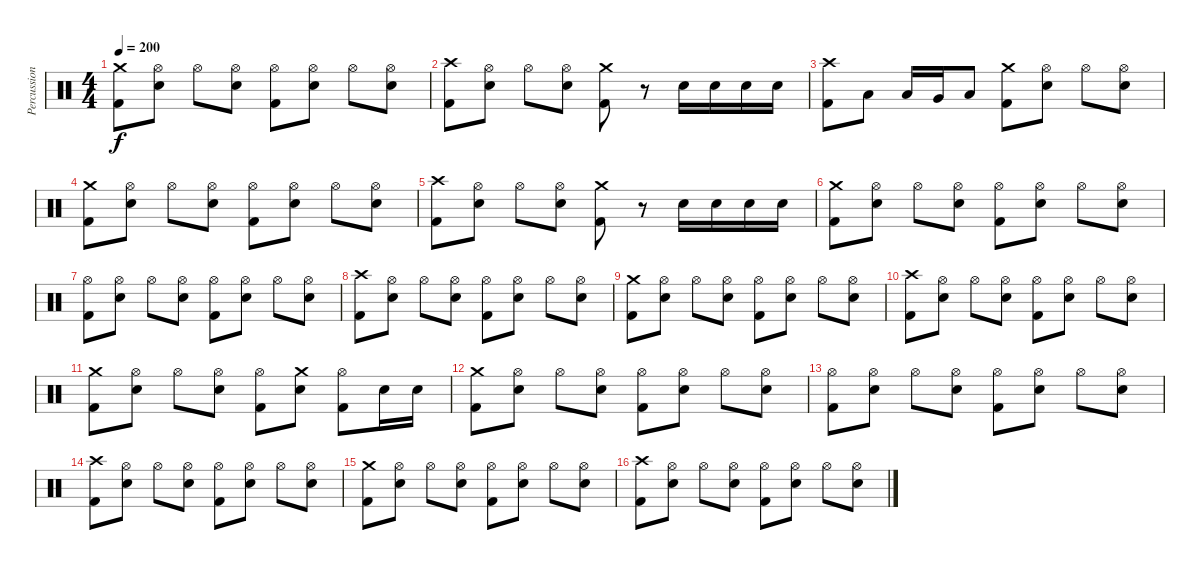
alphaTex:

\track ("Percussion" "Percussion") {instrument percussion}
\staff {score}
\articulation defaults
\ts (4 4)
\tempo 200
\clef neutral
\ks c
("Crash medium (hit)" "Kick (hit) 2").8{dy f} ("Hi-Hat (open)" "Electric Snare (hit)").8 "Hi-Hat (open)".8 ("Hi-Hat (open)" "Electric Snare (hit)").8 ("Hi-Hat (open)" "Kick (hit) 2").8 ("Hi-Hat (open)" "Electric Snare (hit)").8 "Hi-Hat (open)".8 ("Hi-Hat (open)" "Electric Snare (hit)").8 |
("Crash high (hit)" "Kick (hit) 2").8 ("Hi-Hat (open)" "Electric Snare (hit)").8 "Hi-Hat (open)".8 ("Hi-Hat (open)" "Electric Snare (hit)").8 ("Crash medium (hit)" "Kick (hit) 2").8 r.8 "Electric Snare (hit)".16 "Electric Snare (hit)".16 "Electric Snare (hit)".16 "Electric Snare (hit)".16 |
("Crash high (hit)" "Kick (hit) 2").8 "Low Tom (hit)".8 "Low Tom (hit)".16 "Very Low Tom (hit)".16 "Low Floor Tom (hit)".8 ("Crash medium (hit)" "Kick (hit) 2").8 ("Hi-Hat (open)" "Electric Snare (hit)").8 "Hi-Hat (open)".8 ("Hi-Hat (open)" "Electric Snare (hit)").8 |
("Crash medium (hit)" "Kick (hit) 2").8 ("Hi-Hat (open)" "Electric Snare (hit)").8 "Hi-Hat (open)".8 ("Hi-Hat (open)" "Electric Snare (hit)").8 ("Hi-Hat (open)" "Kick (hit) 2").8 ("Hi-Hat (open)" "Electric Snare (hit)").8 "Hi-Hat (open)".8 ("Hi-Hat (open)" "Electric Snare (hit)").8 |
("Crash high (hit)" "Kick (hit) 2").8 ("Hi-Hat (open)" "Electric Snare (hit)").8 "Hi-Hat (open)".8 ("Hi-Hat (open)" "Electric Snare (hit)").8 ("Crash medium (hit)" "Kick (hit) 2").8 r.8 "Electric Snare (hit)".16 "Electric Snare (hit)".16 "Electric Snare (hit)".16 "Electric Snare (hit)".16 |
("Crash medium (hit)" "Kick (hit) 2").8 ("Hi-Hat (open)" "Electric Snare (hit)").8 "Hi-Hat (open)".8 ("Hi-Hat (open)" "Electric Snare (hit)").8 ("Hi-Hat (open)" "Kick (hit) 2").8 ("Hi-Hat (open)" "Electric Snare (hit)").8 "Hi-Hat (open)".8 ("Hi-Hat (open)" "Electric Snare (hit)").8 |
("Hi-Hat (open)" "Kick (hit) 2").8 ("Hi-Hat (open)" "Electric Snare (hit)").8 "Hi-Hat (open)".8 ("Hi-Hat (open)" "Electric Snare (hit)").8 ("Hi-Hat (open)" "Kick (hit) 2").8 ("Hi-Hat (open)" "Electric Snare (hit)").8 "Hi-Hat (open)".8 ("Hi-Hat (open)" "Electric Snare (hit)").8 |
("Crash high (hit)" "Kick (hit) 2").8 ("Hi-Hat (open)" "Electric Snare (hit)").8 "Hi-Hat (open)".8 ("Hi-Hat (open)" "Electric Snare (hit)").8 ("Hi-Hat (open)" "Kick (hit) 2").8 ("Hi-Hat (open)" "Electric Snare (hit)").8 "Hi-Hat (open)".8 ("Hi-Hat (open)" "Electric Snare (hit)").8 |
("Crash medium (hit)" "Kick (hit) 2").8 ("Hi-Hat (open)" "Electric Snare (hit)").8 "Hi-Hat (open)".8 ("Hi-Hat (open)" "Electric Snare (hit)").8 ("Hi-Hat (open)" "Kick (hit) 2").8 ("Hi-Hat (open)" "Electric Snare (hit)").8 "Hi-Hat (open)".8 ("Hi-Hat (open)" "Electric Snare (hit)").8 |
("Crash high (hit)" "Kick (hit) 2").8 ("Hi-Hat (open)" "Electric Snare (hit)").8 "Hi-Hat (open)".8 ("Hi-Hat (open)" "Electric Snare (hit)").8 ("Hi-Hat (open)" "Kick (hit) 2").8 ("Hi-Hat (open)" "Electric Snare (hit)").8 "Hi-Hat (open)".8 ("Hi-Hat (open)" "Electric Snare (hit)").8 |
("Crash medium (hit)" "Kick (hit) 2").8 ("Hi-Hat (open)" "Electric Snare (hit)").8 "Hi-Hat (open)".8 ("Hi-Hat (open)" "Electric Snare (hit)").8 ("Hi-Hat (open)" "Kick (hit) 2").8 ("Crash medium (hit)" "Electric Snare (hit)").8 ("Hi-Hat (open)" "Kick (hit) 2").8 "Electric Snare (hit)".16 "Electric Snare (hit)".16 |
("Crash medium (hit)" "Kick (hit) 2").8 ("Hi-Hat (open)" "Electric Snare (hit)").8 "Hi-Hat (open)".8 ("Hi-Hat (open)" "Electric Snare (hit)").8 ("Hi-Hat (open)" "Kick (hit) 2").8 ("Hi-Hat (open)" "Electric Snare (hit)").8 "Hi-Hat (open)".8 ("Hi-Hat (open)" "Electric Snare (hit)").8 |
("Hi-Hat (open)" "Kick (hit) 2").8 ("Hi-Hat (open)" "Electric Snare (hit)").8 "Hi-Hat (open)".8 ("Hi-Hat (open)" "Electric Snare (hit)").8 ("Hi-Hat (open)" "Kick (hit) 2").8 ("Hi-Hat (open)" "Electric Snare (hit)").8 "Hi-Hat (open)".8 ("Hi-Hat (open)" "Electric Snare (hit)").8 |
("Crash high (hit)" "Kick (hit) 2").8 ("Hi-Hat (open)" "Electric Snare (hit)").8 "Hi-Hat (open)".8 ("Hi-Hat (open)" "Electric Snare (hit)").8 ("Hi-Hat (open)" "Kick (hit) 2").8 ("Hi-Hat (open)" "Electric Snare (hit)").8 "Hi-Hat (open)".8 ("Hi-Hat (open)" "Electric Snare (hit)").8 |
("Crash medium (hit)" "Kick (hit) 2").8 ("Hi-Hat (open)" "Electric Snare (hit)").8 "Hi-Hat (open)".8 ("Hi-Hat (open)" "Electric Snare (hit)").8 ("Hi-Hat (open)" "Kick (hit) 2").8 ("Hi-Hat (open)" "Electric Snare (hit)").8 "Hi-Hat (open)".8 ("Hi-Hat (open)" "Electric Snare (hit)").8 |
("Crash high (hit)" "Kick (hit) 2").8 ("Hi-Hat (open)" "Electric Snare (hit)").8 "Hi-Hat (open)".8 ("Hi-Hat (open)" "Electric Snare (hit)").8 ("Hi-Hat (open)" "Kick (hit) 2").8 ("Hi-Hat (open)" "Electric Snare (hit)").8 "Hi-Hat (open)".8 ("Hi-Hat (open)" "Electric Snare (hit)").8
